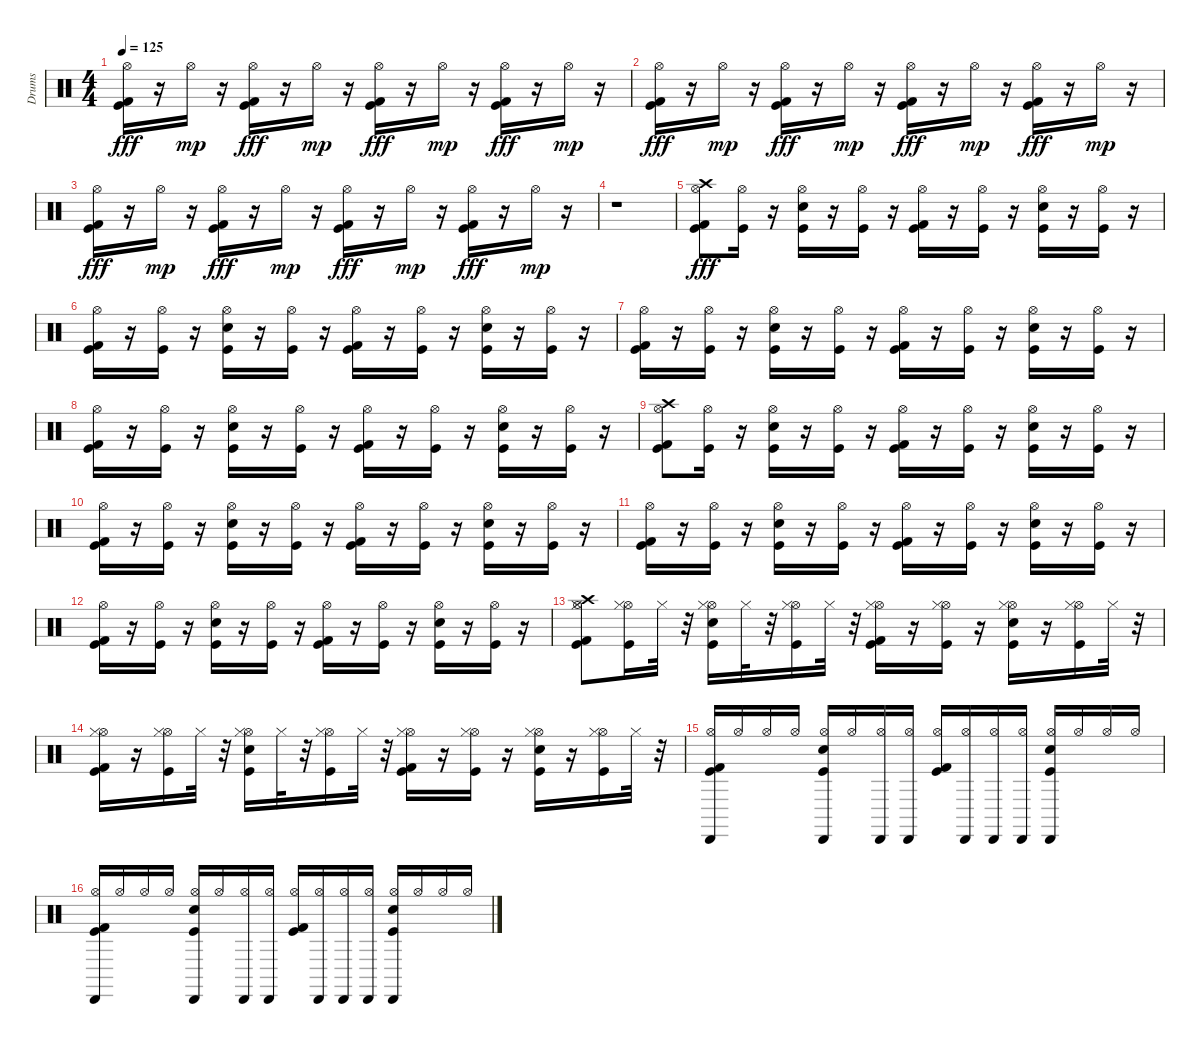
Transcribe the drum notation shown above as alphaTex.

\track ("Drums" "Drums") {instrument percussion}
\staff {score}
\articulation defaults
\ts (4 4)
\tempo 125
\clef neutral
\ks c
("Kick (hit)" "Kick (hit) 2" "Hi-Hat (open)").16{dy fff} r.16 "Hi-Hat (open)".16{dy mp} r.16 ("Kick (hit) 2" "Kick (hit)" "Hi-Hat (open)").16{dy fff} r.16 "Hi-Hat (open)".16{dy mp} r.16 ("Kick (hit) 2" "Kick (hit)" "Hi-Hat (open)").16{dy fff} r.16 "Hi-Hat (open)".16{dy mp} r.16 ("Kick (hit) 2" "Kick (hit)" "Hi-Hat (open)").16{dy fff} r.16 "Hi-Hat (open)".16{dy mp} r.16 |
("Hi-Hat (open)" "Kick (hit) 2" "Kick (hit)").16{dy fff} r.16 "Hi-Hat (open)".16{dy mp} r.16 ("Kick (hit) 2" "Kick (hit)" "Hi-Hat (open)").16{dy fff} r.16 "Hi-Hat (open)".16{dy mp} r.16 ("Kick (hit) 2" "Kick (hit)" "Hi-Hat (open)").16{dy fff} r.16 "Hi-Hat (open)".16{dy mp} r.16 ("Kick (hit) 2" "Kick (hit)" "Hi-Hat (open)").16{dy fff} r.16 "Hi-Hat (open)".16{dy mp} r.16 |
("Hi-Hat (open)" "Kick (hit) 2" "Kick (hit)").16{dy fff} r.16 "Hi-Hat (open)".16{dy mp} r.16 ("Kick (hit) 2" "Kick (hit)" "Hi-Hat (open)").16{dy fff} r.16 "Hi-Hat (open)".16{dy mp} r.16 ("Kick (hit) 2" "Kick (hit)" "Hi-Hat (open)").16{dy fff} r.16 "Hi-Hat (open)".16{dy mp} r.16 ("Kick (hit) 2" "Kick (hit)" "Hi-Hat (open)").16{dy fff} r.16 "Hi-Hat (open)".16{dy mp} r.16 |
r.1 |
("Kick (hit) 2" "Kick (hit)" "Hi-Hat (open)" "Crash high (hit)").8{dy fff} ("Kick (hit)" "Hi-Hat (open)").16 r.16 ("Kick (hit)" "Snare (hit) 2" "Hi-Hat (open)").16 r.16 ("Kick (hit)" "Hi-Hat (open)").16 r.16 ("Kick (hit) 2" "Kick (hit)" "Hi-Hat (open)").16 r.16 ("Kick (hit)" "Hi-Hat (open)").16 r.16 ("Kick (hit)" "Snare (hit) 2" "Hi-Hat (open)").16 r.16 ("Kick (hit)" "Hi-Hat (open)").16 r.16 |
("Kick (hit) 2" "Kick (hit)" "Hi-Hat (open)").16 r.16 ("Kick (hit)" "Hi-Hat (open)").16 r.16 ("Kick (hit)" "Snare (hit) 2" "Hi-Hat (open)").16 r.16 ("Kick (hit)" "Hi-Hat (open)").16 r.16 ("Kick (hit) 2" "Kick (hit)" "Hi-Hat (open)").16 r.16 ("Kick (hit)" "Hi-Hat (open)").16 r.16 ("Kick (hit)" "Snare (hit) 2" "Hi-Hat (open)").16 r.16 ("Kick (hit)" "Hi-Hat (open)").16 r.16 |
("Kick (hit) 2" "Kick (hit)" "Hi-Hat (open)").16 r.16 ("Kick (hit)" "Hi-Hat (open)").16 r.16 ("Kick (hit)" "Snare (hit) 2" "Hi-Hat (open)").16 r.16 ("Kick (hit)" "Hi-Hat (open)").16 r.16 ("Kick (hit) 2" "Kick (hit)" "Hi-Hat (open)").16 r.16 ("Kick (hit)" "Hi-Hat (open)").16 r.16 ("Kick (hit)" "Snare (hit) 2" "Hi-Hat (open)").16 r.16 ("Kick (hit)" "Hi-Hat (open)").16 r.16 |
("Kick (hit) 2" "Kick (hit)" "Hi-Hat (open)").16 r.16 ("Kick (hit)" "Hi-Hat (open)").16 r.16 ("Kick (hit)" "Snare (hit) 2" "Hi-Hat (open)").16 r.16 ("Kick (hit)" "Hi-Hat (open)").16 r.16 ("Kick (hit) 2" "Kick (hit)" "Hi-Hat (open)").16 r.16 ("Kick (hit)" "Hi-Hat (open)").16 r.16 ("Kick (hit)" "Snare (hit) 2" "Hi-Hat (open)").16 r.16 ("Kick (hit)" "Hi-Hat (open)").16 r.16 |
("Kick (hit) 2" "Kick (hit)" "Hi-Hat (open)" "Crash high (hit)").8 ("Kick (hit)" "Hi-Hat (open)").16 r.16 ("Kick (hit)" "Snare (hit) 2" "Hi-Hat (open)").16 r.16 ("Kick (hit)" "Hi-Hat (open)").16 r.16 ("Kick (hit) 2" "Kick (hit)" "Hi-Hat (open)").16 r.16 ("Kick (hit)" "Hi-Hat (open)").16 r.16 ("Kick (hit)" "Snare (hit) 2" "Hi-Hat (open)").16 r.16 ("Kick (hit)" "Hi-Hat (open)").16 r.16 |
("Kick (hit) 2" "Kick (hit)" "Hi-Hat (open)").16 r.16 ("Kick (hit)" "Hi-Hat (open)").16 r.16 ("Kick (hit)" "Snare (hit) 2" "Hi-Hat (open)").16 r.16 ("Kick (hit)" "Hi-Hat (open)").16 r.16 ("Kick (hit) 2" "Kick (hit)" "Hi-Hat (open)").16 r.16 ("Kick (hit)" "Hi-Hat (open)").16 r.16 ("Kick (hit)" "Snare (hit) 2" "Hi-Hat (open)").16 r.16 ("Kick (hit)" "Hi-Hat (open)").16 r.16 |
("Kick (hit) 2" "Kick (hit)" "Hi-Hat (open)").16 r.16 ("Kick (hit)" "Hi-Hat (open)").16 r.16 ("Kick (hit)" "Snare (hit) 2" "Hi-Hat (open)").16 r.16 ("Kick (hit)" "Hi-Hat (open)").16 r.16 ("Kick (hit) 2" "Kick (hit)" "Hi-Hat (open)").16 r.16 ("Kick (hit)" "Hi-Hat (open)").16 r.16 ("Kick (hit)" "Snare (hit) 2" "Hi-Hat (open)").16 r.16 ("Kick (hit)" "Hi-Hat (open)").16 r.16 |
("Kick (hit) 2" "Kick (hit)" "Hi-Hat (open)").16 r.16 ("Kick (hit)" "Hi-Hat (open)").16 r.16 ("Kick (hit)" "Snare (hit) 2" "Hi-Hat (open)").16 r.16 ("Kick (hit)" "Hi-Hat (open)").16 r.16 ("Kick (hit) 2" "Kick (hit)" "Hi-Hat (open)").16 r.16 ("Kick (hit)" "Hi-Hat (open)").16 r.16 ("Kick (hit)" "Snare (hit) 2" "Hi-Hat (open)").16 r.16 ("Kick (hit)" "Hi-Hat (open)").16 r.16 |
("Kick (hit)" "Kick (hit) 2" "Hi-Hat (open)" "Crash high (hit)" "Hi-Hat (closed)").8 ("Kick (hit)" "Hi-Hat (open)" "Hi-Hat (closed)").16 "Hi-Hat (closed)".32 r.32 ("Kick (hit)" "Snare (hit) 2" "Hi-Hat (open)" "Hi-Hat (closed)").16 "Hi-Hat (closed)".32 r.32 ("Kick (hit)" "Hi-Hat (open)" "Hi-Hat (closed)").16 "Hi-Hat (closed)".32 r.32 ("Kick (hit)" "Kick (hit) 2" "Hi-Hat (open)" "Hi-Hat (closed)").16 r.16 ("Kick (hit)" "Hi-Hat (open)" "Hi-Hat (closed)").16 r.16 ("Kick (hit)" "Snare (hit) 2" "Hi-Hat (open)" "Hi-Hat (closed)").16 r.16 ("Kick (hit)" "Hi-Hat (open)" "Hi-Hat (closed)").16 "Hi-Hat (closed)".32 r.32 |
("Kick (hit)" "Kick (hit) 2" "Hi-Hat (open)" "Hi-Hat (closed)").16 r.16 ("Kick (hit)" "Hi-Hat (open)" "Hi-Hat (closed)").16 "Hi-Hat (closed)".32 r.32 ("Kick (hit)" "Snare (hit) 2" "Hi-Hat (open)" "Hi-Hat (closed)").16 "Hi-Hat (closed)".32 r.32 ("Kick (hit)" "Hi-Hat (open)" "Hi-Hat (closed)").16 "Hi-Hat (closed)".32 r.32 ("Kick (hit)" "Kick (hit) 2" "Hi-Hat (open)" "Hi-Hat (closed)").16 r.16 ("Kick (hit)" "Hi-Hat (open)" "Hi-Hat (closed)").16 r.16 ("Kick (hit)" "Snare (hit) 2" "Hi-Hat (open)" "Hi-Hat (closed)").16 r.16 ("Kick (hit)" "Hi-Hat (open)" "Hi-Hat (closed)").16 "Hi-Hat (closed)".32 r.32 |
("Kick (hit) 2" "Kick (hit)" "Cabasa (hit)" "Hi-Hat (open)").16 "Hi-Hat (open)".16 "Hi-Hat (open)".16 "Hi-Hat (open)".16 ("Kick (hit)" "Cabasa (hit)" "Snare (hit) 2" "Hi-Hat (open)").16 "Hi-Hat (open)".16 ("Cabasa (hit)" "Hi-Hat (open)").16 ("Cabasa (hit)" "Hi-Hat (open)").16 ("Kick (hit) 2" "Kick (hit)" "Hi-Hat (open)").16 ("Cabasa (hit)" "Hi-Hat (open)").16 ("Cabasa (hit)" "Hi-Hat (open)").16 ("Cabasa (hit)" "Hi-Hat (open)").16 ("Kick (hit)" "Cabasa (hit)" "Snare (hit) 2" "Hi-Hat (open)").16 "Hi-Hat (open)".16 "Hi-Hat (open)".16 "Hi-Hat (open)".16 |
("Kick (hit) 2" "Kick (hit)" "Cabasa (hit)" "Hi-Hat (open)").16 "Hi-Hat (open)".16 "Hi-Hat (open)".16 "Hi-Hat (open)".16 ("Kick (hit)" "Cabasa (hit)" "Snare (hit) 2" "Hi-Hat (open)").16 "Hi-Hat (open)".16 ("Cabasa (hit)" "Hi-Hat (open)").16 ("Cabasa (hit)" "Hi-Hat (open)").16 ("Kick (hit) 2" "Kick (hit)" "Hi-Hat (open)").16 ("Cabasa (hit)" "Hi-Hat (open)").16 ("Cabasa (hit)" "Hi-Hat (open)").16 ("Cabasa (hit)" "Hi-Hat (open)").16 ("Kick (hit)" "Cabasa (hit)" "Snare (hit) 2" "Hi-Hat (open)").16 "Hi-Hat (open)".16 "Hi-Hat (open)".16 "Hi-Hat (open)".16
